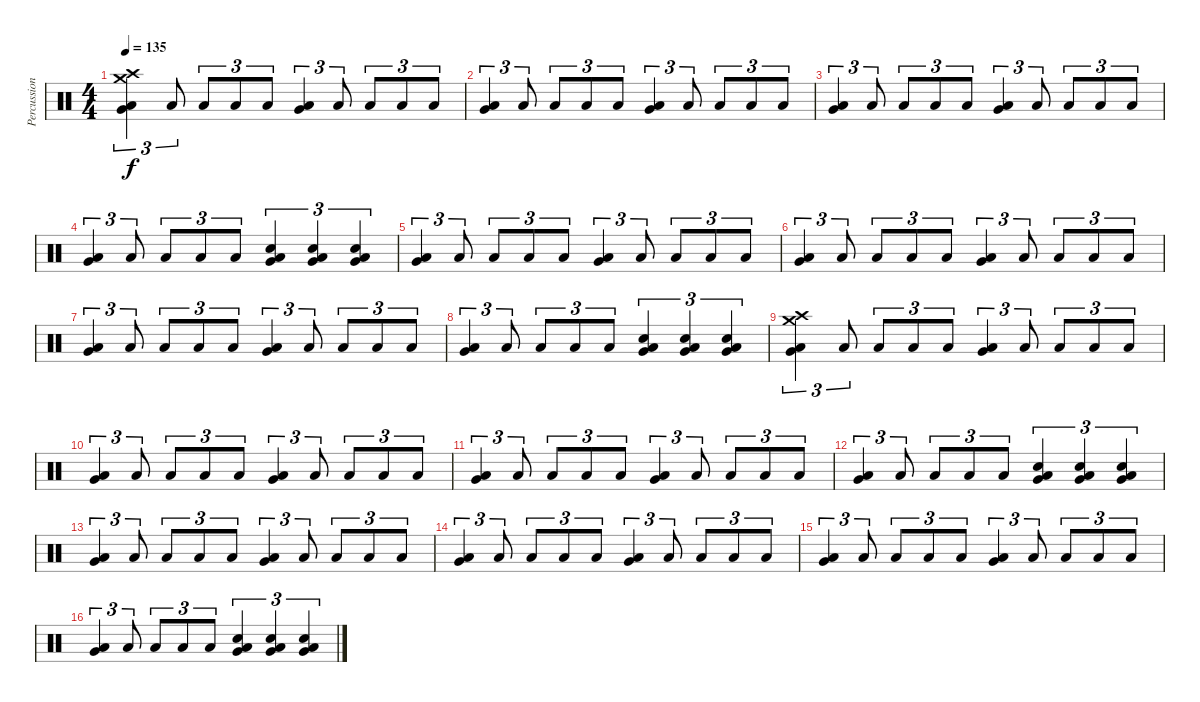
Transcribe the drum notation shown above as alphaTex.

\track ("Percussion" "Percussion") {instrument percussion}
\staff {score}
\articulation defaults
\ts (4 4)
\tempo 135
\clef neutral
\ks c
("Crash medium (hit)" "Crash high (hit)" "Very Low Tom (hit)" "Low Floor Tom (hit)").4{tu (3 2) dy f} "Low Floor Tom (hit)".8{tu (3 2)} "Low Floor Tom (hit)".8{tu (3 2)} "Low Floor Tom (hit)".8{tu (3 2)} "Low Floor Tom (hit)".8{tu (3 2)} ("Very Low Tom (hit)" "Low Floor Tom (hit)").4{tu (3 2)} "Low Floor Tom (hit)".8{tu (3 2)} "Low Floor Tom (hit)".8{tu (3 2)} "Low Floor Tom (hit)".8{tu (3 2)} "Low Floor Tom (hit)".8{tu (3 2)} |
("Very Low Tom (hit)" "Low Floor Tom (hit)").4{tu (3 2)} "Low Floor Tom (hit)".8{tu (3 2)} "Low Floor Tom (hit)".8{tu (3 2)} "Low Floor Tom (hit)".8{tu (3 2)} "Low Floor Tom (hit)".8{tu (3 2)} ("Very Low Tom (hit)" "Low Floor Tom (hit)").4{tu (3 2)} "Low Floor Tom (hit)".8{tu (3 2)} "Low Floor Tom (hit)".8{tu (3 2)} "Low Floor Tom (hit)".8{tu (3 2)} "Low Floor Tom (hit)".8{tu (3 2)} |
("Very Low Tom (hit)" "Low Floor Tom (hit)").4{tu (3 2)} "Low Floor Tom (hit)".8{tu (3 2)} "Low Floor Tom (hit)".8{tu (3 2)} "Low Floor Tom (hit)".8{tu (3 2)} "Low Floor Tom (hit)".8{tu (3 2)} ("Very Low Tom (hit)" "Low Floor Tom (hit)").4{tu (3 2)} "Low Floor Tom (hit)".8{tu (3 2)} "Low Floor Tom (hit)".8{tu (3 2)} "Low Floor Tom (hit)".8{tu (3 2)} "Low Floor Tom (hit)".8{tu (3 2)} |
("Very Low Tom (hit)" "Low Floor Tom (hit)").4{tu (3 2)} "Low Floor Tom (hit)".8{tu (3 2)} "Low Floor Tom (hit)".8{tu (3 2)} "Low Floor Tom (hit)".8{tu (3 2)} "Low Floor Tom (hit)".8{tu (3 2)} ("Hand Clap (hit)" "Very Low Tom (hit)" "Low Floor Tom (hit)").4{tu (3 2)} ("Hand Clap (hit)" "Very Low Tom (hit)" "Low Floor Tom (hit)").4{tu (3 2)} ("Hand Clap (hit)" "Very Low Tom (hit)" "Low Floor Tom (hit)").4{tu (3 2)} |
("Very Low Tom (hit)" "Low Floor Tom (hit)").4{tu (3 2)} "Low Floor Tom (hit)".8{tu (3 2)} "Low Floor Tom (hit)".8{tu (3 2)} "Low Floor Tom (hit)".8{tu (3 2)} "Low Floor Tom (hit)".8{tu (3 2)} ("Very Low Tom (hit)" "Low Floor Tom (hit)").4{tu (3 2)} "Low Floor Tom (hit)".8{tu (3 2)} "Low Floor Tom (hit)".8{tu (3 2)} "Low Floor Tom (hit)".8{tu (3 2)} "Low Floor Tom (hit)".8{tu (3 2)} |
("Very Low Tom (hit)" "Low Floor Tom (hit)").4{tu (3 2)} "Low Floor Tom (hit)".8{tu (3 2)} "Low Floor Tom (hit)".8{tu (3 2)} "Low Floor Tom (hit)".8{tu (3 2)} "Low Floor Tom (hit)".8{tu (3 2)} ("Very Low Tom (hit)" "Low Floor Tom (hit)").4{tu (3 2)} "Low Floor Tom (hit)".8{tu (3 2)} "Low Floor Tom (hit)".8{tu (3 2)} "Low Floor Tom (hit)".8{tu (3 2)} "Low Floor Tom (hit)".8{tu (3 2)} |
("Very Low Tom (hit)" "Low Floor Tom (hit)").4{tu (3 2)} "Low Floor Tom (hit)".8{tu (3 2)} "Low Floor Tom (hit)".8{tu (3 2)} "Low Floor Tom (hit)".8{tu (3 2)} "Low Floor Tom (hit)".8{tu (3 2)} ("Very Low Tom (hit)" "Low Floor Tom (hit)").4{tu (3 2)} "Low Floor Tom (hit)".8{tu (3 2)} "Low Floor Tom (hit)".8{tu (3 2)} "Low Floor Tom (hit)".8{tu (3 2)} "Low Floor Tom (hit)".8{tu (3 2)} |
("Very Low Tom (hit)" "Low Floor Tom (hit)").4{tu (3 2)} "Low Floor Tom (hit)".8{tu (3 2)} "Low Floor Tom (hit)".8{tu (3 2)} "Low Floor Tom (hit)".8{tu (3 2)} "Low Floor Tom (hit)".8{tu (3 2)} ("Hand Clap (hit)" "Very Low Tom (hit)" "Low Floor Tom (hit)").4{tu (3 2)} ("Hand Clap (hit)" "Very Low Tom (hit)" "Low Floor Tom (hit)").4{tu (3 2)} ("Hand Clap (hit)" "Very Low Tom (hit)" "Low Floor Tom (hit)").4{tu (3 2)} |
("Crash high (hit)" "Crash medium (hit)" "Very Low Tom (hit)" "Low Floor Tom (hit)").4{tu (3 2)} "Low Floor Tom (hit)".8{tu (3 2)} "Low Floor Tom (hit)".8{tu (3 2)} "Low Floor Tom (hit)".8{tu (3 2)} "Low Floor Tom (hit)".8{tu (3 2)} ("Very Low Tom (hit)" "Low Floor Tom (hit)").4{tu (3 2)} "Low Floor Tom (hit)".8{tu (3 2)} "Low Floor Tom (hit)".8{tu (3 2)} "Low Floor Tom (hit)".8{tu (3 2)} "Low Floor Tom (hit)".8{tu (3 2)} |
("Very Low Tom (hit)" "Low Floor Tom (hit)").4{tu (3 2)} "Low Floor Tom (hit)".8{tu (3 2)} "Low Floor Tom (hit)".8{tu (3 2)} "Low Floor Tom (hit)".8{tu (3 2)} "Low Floor Tom (hit)".8{tu (3 2)} ("Very Low Tom (hit)" "Low Floor Tom (hit)").4{tu (3 2)} "Low Floor Tom (hit)".8{tu (3 2)} "Low Floor Tom (hit)".8{tu (3 2)} "Low Floor Tom (hit)".8{tu (3 2)} "Low Floor Tom (hit)".8{tu (3 2)} |
("Very Low Tom (hit)" "Low Floor Tom (hit)").4{tu (3 2)} "Low Floor Tom (hit)".8{tu (3 2)} "Low Floor Tom (hit)".8{tu (3 2)} "Low Floor Tom (hit)".8{tu (3 2)} "Low Floor Tom (hit)".8{tu (3 2)} ("Very Low Tom (hit)" "Low Floor Tom (hit)").4{tu (3 2)} "Low Floor Tom (hit)".8{tu (3 2)} "Low Floor Tom (hit)".8{tu (3 2)} "Low Floor Tom (hit)".8{tu (3 2)} "Low Floor Tom (hit)".8{tu (3 2)} |
("Very Low Tom (hit)" "Low Floor Tom (hit)").4{tu (3 2)} "Low Floor Tom (hit)".8{tu (3 2)} "Low Floor Tom (hit)".8{tu (3 2)} "Low Floor Tom (hit)".8{tu (3 2)} "Low Floor Tom (hit)".8{tu (3 2)} ("Hand Clap (hit)" "Very Low Tom (hit)" "Low Floor Tom (hit)").4{tu (3 2)} ("Hand Clap (hit)" "Very Low Tom (hit)" "Low Floor Tom (hit)").4{tu (3 2)} ("Hand Clap (hit)" "Very Low Tom (hit)" "Low Floor Tom (hit)").4{tu (3 2)} |
("Very Low Tom (hit)" "Low Floor Tom (hit)").4{tu (3 2)} "Low Floor Tom (hit)".8{tu (3 2)} "Low Floor Tom (hit)".8{tu (3 2)} "Low Floor Tom (hit)".8{tu (3 2)} "Low Floor Tom (hit)".8{tu (3 2)} ("Very Low Tom (hit)" "Low Floor Tom (hit)").4{tu (3 2)} "Low Floor Tom (hit)".8{tu (3 2)} "Low Floor Tom (hit)".8{tu (3 2)} "Low Floor Tom (hit)".8{tu (3 2)} "Low Floor Tom (hit)".8{tu (3 2)} |
("Very Low Tom (hit)" "Low Floor Tom (hit)").4{tu (3 2)} "Low Floor Tom (hit)".8{tu (3 2)} "Low Floor Tom (hit)".8{tu (3 2)} "Low Floor Tom (hit)".8{tu (3 2)} "Low Floor Tom (hit)".8{tu (3 2)} ("Very Low Tom (hit)" "Low Floor Tom (hit)").4{tu (3 2)} "Low Floor Tom (hit)".8{tu (3 2)} "Low Floor Tom (hit)".8{tu (3 2)} "Low Floor Tom (hit)".8{tu (3 2)} "Low Floor Tom (hit)".8{tu (3 2)} |
("Very Low Tom (hit)" "Low Floor Tom (hit)").4{tu (3 2)} "Low Floor Tom (hit)".8{tu (3 2)} "Low Floor Tom (hit)".8{tu (3 2)} "Low Floor Tom (hit)".8{tu (3 2)} "Low Floor Tom (hit)".8{tu (3 2)} ("Very Low Tom (hit)" "Low Floor Tom (hit)").4{tu (3 2)} "Low Floor Tom (hit)".8{tu (3 2)} "Low Floor Tom (hit)".8{tu (3 2)} "Low Floor Tom (hit)".8{tu (3 2)} "Low Floor Tom (hit)".8{tu (3 2)} |
("Very Low Tom (hit)" "Low Floor Tom (hit)").4{tu (3 2)} "Low Floor Tom (hit)".8{tu (3 2)} "Low Floor Tom (hit)".8{tu (3 2)} "Low Floor Tom (hit)".8{tu (3 2)} "Low Floor Tom (hit)".8{tu (3 2)} ("Hand Clap (hit)" "Very Low Tom (hit)" "Low Floor Tom (hit)").4{tu (3 2)} ("Hand Clap (hit)" "Very Low Tom (hit)" "Low Floor Tom (hit)").4{tu (3 2)} ("Hand Clap (hit)" "Very Low Tom (hit)" "Low Floor Tom (hit)").4{tu (3 2)}
